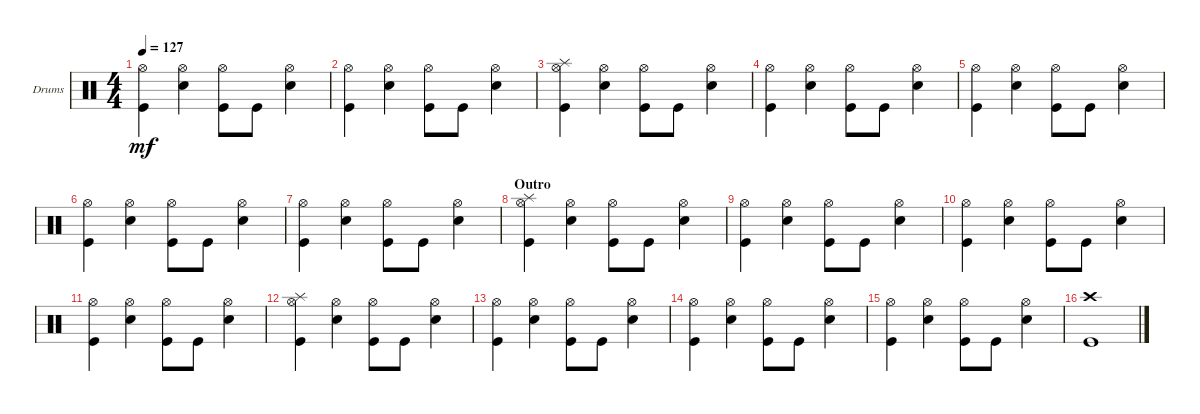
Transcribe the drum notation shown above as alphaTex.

\defaultSystemsLayout 4
\bracketExtendMode groupsimilarinstruments
\firstSystemTrackNameOrientation horizontal
\otherSystemsTrackNameOrientation horizontal
\track ("Drums 2" "Drums") {instrument percussion}
\staff {score}
\articulation defaults
\ts (4 4)
\tempo 127
\clef neutral
\ks c
("Kick (hit)" "Hi-Hat (open)").4{dy mf} ("Hi-Hat (open)" "Snare (hit) 2").4 ("Hi-Hat (open)" "Kick (hit)").8 "Kick (hit)".8 ("Hi-Hat (open)" "Snare (hit) 2").4 |
("Kick (hit)" "Hi-Hat (open)").4 ("Hi-Hat (open)" "Snare (hit) 2").4 ("Hi-Hat (open)" "Kick (hit)").8 "Kick (hit)".8 ("Hi-Hat (open)" "Snare (hit) 2").4 |
("Kick (hit)" "Hi-Hat (open)" "Splash (hit)").4 ("Hi-Hat (open)" "Snare (hit) 2").4 ("Hi-Hat (open)" "Kick (hit)").8 "Kick (hit)".8 ("Hi-Hat (open)" "Snare (hit) 2").4 |
("Kick (hit)" "Hi-Hat (open)").4 ("Hi-Hat (open)" "Snare (hit) 2").4 ("Hi-Hat (open)" "Kick (hit)").8 "Kick (hit)".8 ("Hi-Hat (open)" "Snare (hit) 2").4 |
("Kick (hit)" "Hi-Hat (open)").4 ("Hi-Hat (open)" "Snare (hit) 2").4 ("Hi-Hat (open)" "Kick (hit)").8 "Kick (hit)".8 ("Hi-Hat (open)" "Snare (hit) 2").4 |
("Kick (hit)" "Hi-Hat (open)").4 ("Hi-Hat (open)" "Snare (hit) 2").4 ("Hi-Hat (open)" "Kick (hit)").8 "Kick (hit)".8 ("Hi-Hat (open)" "Snare (hit) 2").4 |
("Kick (hit)" "Hi-Hat (open)").4 ("Hi-Hat (open)" "Snare (hit) 2").4 ("Hi-Hat (open)" "Kick (hit)").8 "Kick (hit)".8 ("Hi-Hat (open)" "Snare (hit) 2").4 |
\section ("" "Outro")
("Kick (hit)" "Hi-Hat (open)" "Splash (hit)").4 ("Hi-Hat (open)" "Snare (hit) 2").4 ("Hi-Hat (open)" "Kick (hit)").8 "Kick (hit)".8 ("Hi-Hat (open)" "Snare (hit) 2").4 |
("Kick (hit)" "Hi-Hat (open)").4 ("Hi-Hat (open)" "Snare (hit) 2").4 ("Hi-Hat (open)" "Kick (hit)").8 "Kick (hit)".8 ("Hi-Hat (open)" "Snare (hit) 2").4 |
("Kick (hit)" "Hi-Hat (open)").4 ("Hi-Hat (open)" "Snare (hit) 2").4 ("Hi-Hat (open)" "Kick (hit)").8 "Kick (hit)".8 ("Hi-Hat (open)" "Snare (hit) 2").4 |
("Kick (hit)" "Hi-Hat (open)").4 ("Hi-Hat (open)" "Snare (hit) 2").4 ("Hi-Hat (open)" "Kick (hit)").8 "Kick (hit)".8 ("Hi-Hat (open)" "Snare (hit) 2").4 |
("Kick (hit)" "Hi-Hat (open)" "Splash (hit)").4 ("Hi-Hat (open)" "Snare (hit) 2").4 ("Hi-Hat (open)" "Kick (hit)").8 "Kick (hit)".8 ("Hi-Hat (open)" "Snare (hit) 2").4 |
("Kick (hit)" "Hi-Hat (open)").4 ("Hi-Hat (open)" "Snare (hit) 2").4 ("Hi-Hat (open)" "Kick (hit)").8 "Kick (hit)".8 ("Hi-Hat (open)" "Snare (hit) 2").4 |
("Kick (hit)" "Hi-Hat (open)").4 ("Hi-Hat (open)" "Snare (hit) 2").4 ("Hi-Hat (open)" "Kick (hit)").8 "Kick (hit)".8 ("Hi-Hat (open)" "Snare (hit) 2").4 |
("Kick (hit)" "Hi-Hat (open)").4 ("Hi-Hat (open)" "Snare (hit) 2").4 ("Hi-Hat (open)" "Kick (hit)").8 "Kick (hit)".8 ("Hi-Hat (open)" "Snare (hit) 2").4 |
("Kick (hit)" "Crash high (hit)").1
